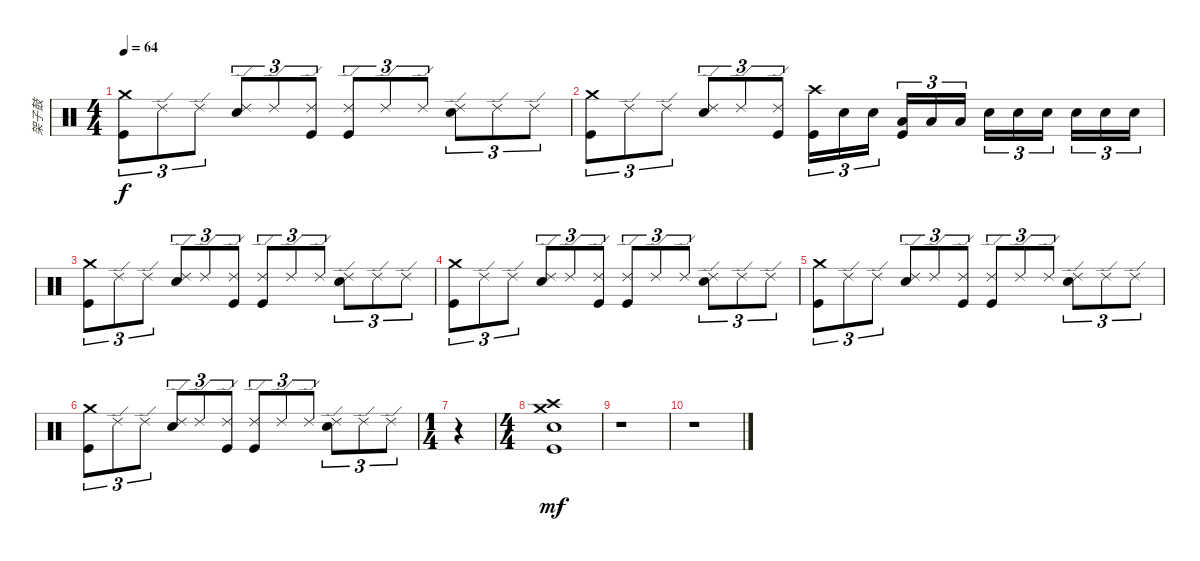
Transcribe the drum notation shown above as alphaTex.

\track ("架子鼓" "架子鼓") {instrument percussion}
\staff {score}
\articulation defaults
\ts (4 4)
\tempo 64
\clef neutral
\ks c
("Kick (hit)" "Crash medium (hit)").8{tu (3 2) dy f} "Ride (edge) 2".8{tu (3 2)} "Ride (edge) 2".8{tu (3 2)} ("Electric Snare (hit)" "Ride (edge) 2").8{tu (3 2)} "Ride (edge) 2".8{tu (3 2)} ("Ride (edge) 2" "Kick (hit)").8{tu (3 2)} ("Kick (hit)" "Ride (edge) 2").8{tu (3 2)} "Ride (edge) 2".8{tu (3 2)} "Ride (edge) 2".8{tu (3 2)} ("Ride (edge) 2" "Electric Snare (hit)").8{tu (3 2)} "Ride (edge) 2".8{tu (3 2)} "Ride (edge) 2".8{tu (3 2)} |
("Kick (hit)" "Crash medium (hit)").8{tu (3 2)} "Ride (edge) 2".8{tu (3 2)} "Ride (edge) 2".8{tu (3 2)} ("Electric Snare (hit)" "Ride (edge) 2").8{tu (3 2)} "Ride (edge) 2".8{tu (3 2)} ("Ride (edge) 2" "Kick (hit)").8{tu (3 2)} ("Kick (hit)" "Crash high (hit)").16{tu (3 2)} "Electric Snare (hit)".16{tu (3 2)} "Electric Snare (hit)".16{tu (3 2)} ("Kick (hit)" "Low Tom (hit)").16{tu (3 2)} "Low Tom (hit)".16{tu (3 2)} "Low Tom (hit)".16{tu (3 2)} "Electric Snare (hit)".16{tu (3 2)} "Electric Snare (hit)".16{tu (3 2)} "Electric Snare (hit)".16{tu (3 2)} "Electric Snare (hit)".16{tu (3 2)} "Electric Snare (hit)".16{tu (3 2)} "Electric Snare (hit)".16{tu (3 2)} |
("Kick (hit)" "Crash medium (hit)").8{tu (3 2)} "Ride (edge) 2".8{tu (3 2)} "Ride (edge) 2".8{tu (3 2)} ("Electric Snare (hit)" "Ride (edge) 2").8{tu (3 2)} "Ride (edge) 2".8{tu (3 2)} ("Ride (edge) 2" "Kick (hit)").8{tu (3 2)} ("Kick (hit)" "Ride (edge) 2").8{tu (3 2)} "Ride (edge) 2".8{tu (3 2)} "Ride (edge) 2".8{tu (3 2)} ("Ride (edge) 2" "Electric Snare (hit)").8{tu (3 2)} "Ride (edge) 2".8{tu (3 2)} "Ride (edge) 2".8{tu (3 2)} |
("Kick (hit)" "Crash medium (hit)").8{tu (3 2)} "Ride (edge) 2".8{tu (3 2)} "Ride (edge) 2".8{tu (3 2)} ("Electric Snare (hit)" "Ride (edge) 2").8{tu (3 2)} "Ride (edge) 2".8{tu (3 2)} ("Ride (edge) 2" "Kick (hit)").8{tu (3 2)} ("Kick (hit)" "Ride (edge) 2").8{tu (3 2)} "Ride (edge) 2".8{tu (3 2)} "Ride (edge) 2".8{tu (3 2)} ("Ride (edge) 2" "Electric Snare (hit)").8{tu (3 2)} "Ride (edge) 2".8{tu (3 2)} "Ride (edge) 2".8{tu (3 2)} |
("Kick (hit)" "Crash medium (hit)").8{tu (3 2)} "Ride (edge) 2".8{tu (3 2)} "Ride (edge) 2".8{tu (3 2)} ("Electric Snare (hit)" "Ride (edge) 2").8{tu (3 2)} "Ride (edge) 2".8{tu (3 2)} ("Ride (edge) 2" "Kick (hit)").8{tu (3 2)} ("Kick (hit)" "Ride (edge) 2").8{tu (3 2)} "Ride (edge) 2".8{tu (3 2)} "Ride (edge) 2".8{tu (3 2)} ("Ride (edge) 2" "Electric Snare (hit)").8{tu (3 2)} "Ride (edge) 2".8{tu (3 2)} "Ride (edge) 2".8{tu (3 2)} |
("Kick (hit)" "Crash medium (hit)").8{tu (3 2)} "Ride (edge) 2".8{tu (3 2)} "Ride (edge) 2".8{tu (3 2)} ("Electric Snare (hit)" "Ride (edge) 2").8{tu (3 2)} "Ride (edge) 2".8{tu (3 2)} ("Ride (edge) 2" "Kick (hit)").8{tu (3 2)} ("Kick (hit)" "Ride (edge) 2").8{tu (3 2)} "Ride (edge) 2".8{tu (3 2)} "Ride (edge) 2".8{tu (3 2)} ("Ride (edge) 2" "Electric Snare (hit)").8{tu (3 2)} "Ride (edge) 2".8{tu (3 2)} "Ride (edge) 2".8{tu (3 2)} |
\ts (1 4)
r.4 |
\ts (4 4)
("Kick (hit)" "Crash medium (hit)" "Crash high (hit)" "Electric Snare (hit)").1{dy mf} |
r.1 |
r.1
